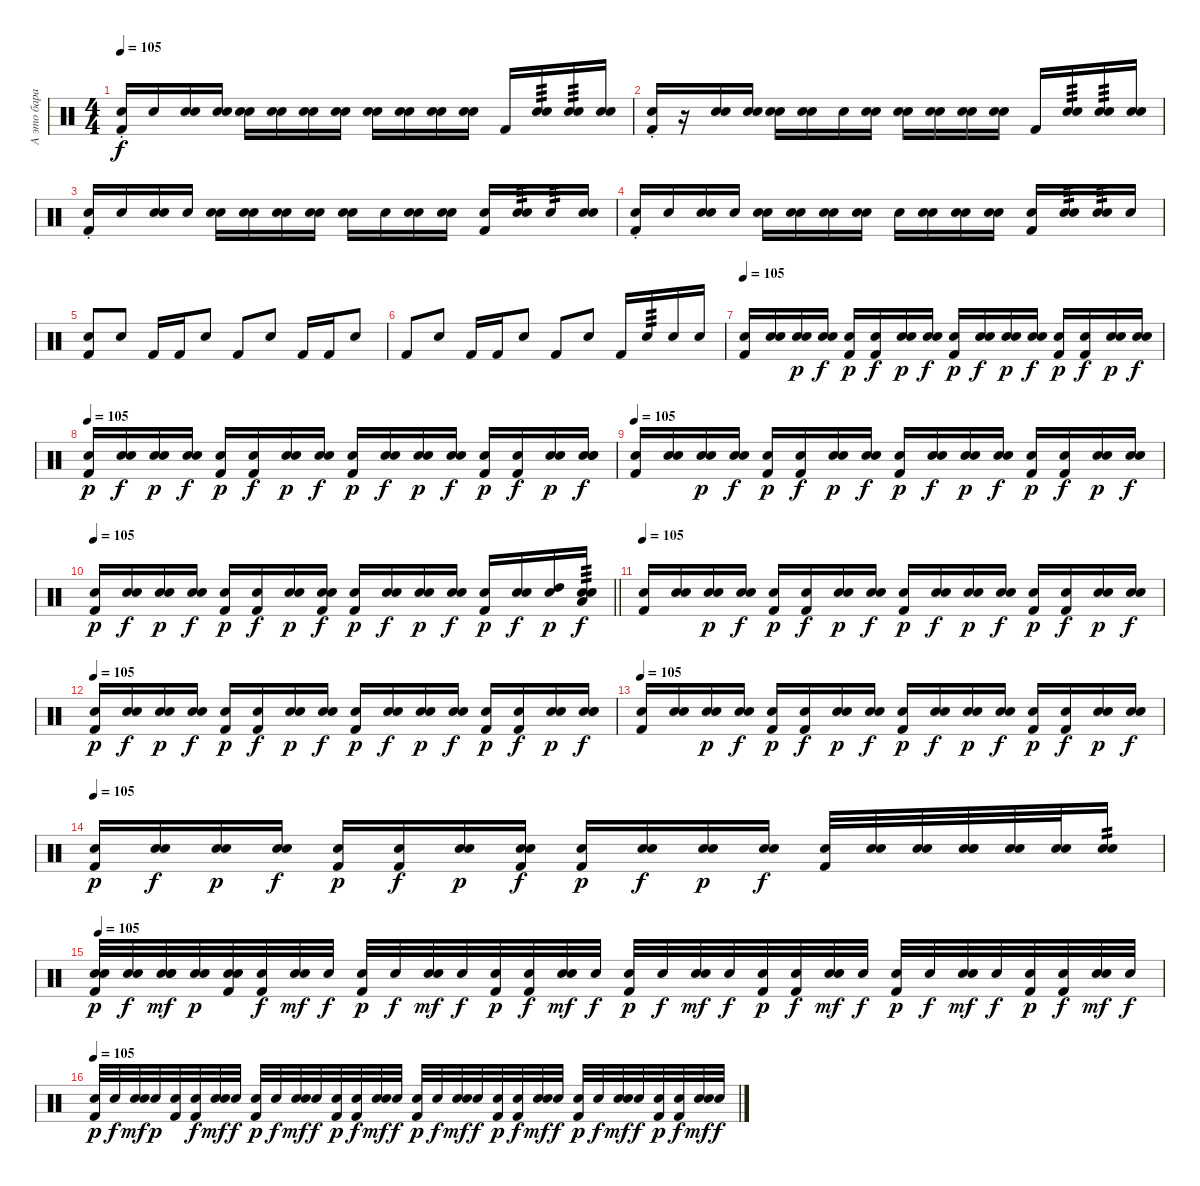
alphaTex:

\track ("А это барабаны" "А это бара") {instrument percussion}
\staff {score}
\articulation defaults
\ts (4 4)
\tempo 105
\clef neutral
\ks c
("Snare (hit)"{st} "Kick (hit) 2").16{dy f} "Snare (hit)".16 ("Snare (hit)" "Snare (hit) 2").16 ("Snare (hit)" "Snare (hit) 2").16 ("Snare (hit)" "Snare (hit) 2").16 ("Snare (hit)" "Snare (hit) 2").16 ("Snare (hit)" "Snare (hit) 2").16 ("Snare (hit)" "Snare (hit) 2").16 ("Snare (hit)" "Snare (hit) 2").16 ("Snare (hit)" "Snare (hit) 2").16 ("Snare (hit)" "Snare (hit) 2").16 ("Snare (hit)" "Snare (hit) 2").16 "Kick (hit) 2".16 ("Snare (hit)" "Snare (hit) 2").16{tp 3} ("Snare (hit)" "Snare (hit) 2").16{tp 3} ("Snare (hit)" "Snare (hit) 2").16 |
("Snare (hit)"{st} "Kick (hit) 2").16 r.16 ("Snare (hit)" "Snare (hit) 2").16 ("Snare (hit)" "Snare (hit) 2").16 ("Snare (hit)" "Snare (hit) 2").16 ("Snare (hit)" "Snare (hit) 2").16 "Snare (hit) 2".16 ("Snare (hit)" "Snare (hit) 2").16 ("Snare (hit)" "Snare (hit) 2").16 ("Snare (hit)" "Snare (hit) 2").16 ("Snare (hit)" "Snare (hit) 2").16 ("Snare (hit)" "Snare (hit) 2").16 "Kick (hit) 2".16 ("Snare (hit)" "Snare (hit) 2").16{tp 3} ("Snare (hit)" "Snare (hit) 2").16{tp 3} ("Snare (hit)" "Snare (hit) 2").16 |
("Snare (hit)"{st} "Kick (hit) 2").16 "Snare (hit)".16 ("Snare (hit)" "Snare (hit) 2").16 "Snare (hit) 2".16 ("Snare (hit)" "Snare (hit) 2").16 ("Snare (hit)" "Snare (hit) 2").16 ("Snare (hit)" "Snare (hit) 2").16 ("Snare (hit)" "Snare (hit) 2").16 ("Snare (hit)" "Snare (hit) 2").16 "Snare (hit) 2".16 ("Snare (hit)" "Snare (hit) 2").16 ("Snare (hit)" "Snare (hit) 2").16 ("Snare (hit)" "Kick (hit) 2").16 ("Snare (hit)" "Snare (hit) 2").16{tp 3} "Snare (hit) 2".16{tp 3} ("Snare (hit)" "Snare (hit) 2").16 |
("Snare (hit)"{st} "Kick (hit) 2").16 "Snare (hit)".16 ("Snare (hit)" "Snare (hit) 2").16 "Snare (hit) 2".16 ("Snare (hit)" "Snare (hit) 2").16 ("Snare (hit)" "Snare (hit) 2").16 ("Snare (hit)" "Snare (hit) 2").16 ("Snare (hit)" "Snare (hit) 2").16 "Snare (hit) 2".16 ("Snare (hit)" "Snare (hit) 2").16 ("Snare (hit)" "Snare (hit) 2").16 ("Snare (hit)" "Snare (hit) 2").16 ("Snare (hit)" "Kick (hit) 2").16 ("Snare (hit)" "Snare (hit) 2").16{tp 3} ("Snare (hit)" "Snare (hit) 2").16{tp 3} "Snare (hit) 2".16 |
("Snare (hit)" "Kick (hit) 2").8 "Snare (hit) 2".8 "Kick (hit) 2".16 "Kick (hit) 2".16 "Snare (hit) 2".8 "Kick (hit) 2".8 "Snare (hit) 2".8 "Kick (hit) 2".16 "Kick (hit) 2".16 "Snare (hit) 2".8 |
"Kick (hit) 2".8 "Snare (hit) 2".8 "Kick (hit) 2".16 "Kick (hit) 2".16 "Snare (hit) 2".8 "Kick (hit) 2".8 "Snare (hit) 2".8 "Kick (hit) 2".16 "Snare (hit) 2".16{tp 3} "Snare (hit) 2".16 "Snare (hit) 2".16 |
\tempo 105
("Snare (hit)" "Kick (hit) 2").16 ("Snare (hit)" "Snare (hit)").16 ("Snare (hit)" "Snare (hit) 2").16{dy p} ("Snare (hit)" "Snare (hit)").16{dy f} ("Snare (hit)" "Kick (hit) 2").16{dy p} ("Snare (hit)" "Kick (hit) 2").16{dy f} ("Snare (hit)" "Snare (hit) 2").16{dy p} ("Snare (hit)" "Snare (hit)").16{dy f} ("Snare (hit)" "Kick (hit) 2").16{dy p} ("Snare (hit)" "Snare (hit)").16{dy f} ("Snare (hit)" "Snare (hit) 2").16{dy p} ("Snare (hit)" "Snare (hit)").16{dy f} ("Snare (hit)" "Kick (hit) 2").16{dy p} ("Snare (hit)" "Kick (hit) 2").16{dy f} ("Snare (hit)" "Snare (hit) 2").16{dy p} ("Snare (hit)" "Snare (hit)").16{dy f} |
\tempo 105
("Snare (hit)" "Kick (hit) 2").16{dy p} ("Snare (hit)" "Snare (hit)").16{dy f} ("Snare (hit)" "Snare (hit) 2").16{dy p} ("Snare (hit)" "Snare (hit)").16{dy f} ("Snare (hit)" "Kick (hit) 2").16{dy p} ("Snare (hit)" "Kick (hit) 2").16{dy f} ("Snare (hit)" "Snare (hit) 2").16{dy p} ("Snare (hit)" "Snare (hit)").16{dy f} ("Snare (hit)" "Kick (hit) 2").16{dy p} ("Snare (hit)" "Snare (hit)").16{dy f} ("Snare (hit)" "Snare (hit) 2").16{dy p} ("Snare (hit)" "Snare (hit)").16{dy f} ("Snare (hit)" "Kick (hit) 2").16{dy p} ("Snare (hit)" "Kick (hit) 2").16{dy f} ("Snare (hit)" "Snare (hit) 2").16{dy p} ("Snare (hit)" "Snare (hit)" "Snare (hit) 2").16{dy f} |
\tempo 105
("Snare (hit)" "Kick (hit) 2").16 ("Snare (hit)" "Snare (hit)").16 ("Snare (hit)" "Snare (hit) 2").16{dy p} ("Snare (hit)" "Snare (hit)").16{dy f} ("Snare (hit)" "Kick (hit) 2").16{dy p} ("Snare (hit)" "Kick (hit) 2").16{dy f} ("Snare (hit)" "Snare (hit) 2").16{dy p} ("Snare (hit)" "Snare (hit)").16{dy f} ("Snare (hit)" "Kick (hit) 2").16{dy p} ("Snare (hit)" "Snare (hit)").16{dy f} ("Snare (hit)" "Snare (hit) 2").16{dy p} ("Snare (hit)" "Snare (hit)").16{dy f} ("Snare (hit)" "Kick (hit) 2").16{dy p} ("Snare (hit)" "Kick (hit) 2").16{dy f} ("Snare (hit)" "Snare (hit) 2").16{dy p} ("Snare (hit)" "Snare (hit)").16{dy f} |
\tempo 105
\barLineRight lightlight
("Snare (hit)" "Kick (hit) 2").16{dy p} ("Snare (hit)" "Snare (hit)").16{dy f} ("Snare (hit)" "Snare (hit) 2").16{dy p} ("Snare (hit)" "Snare (hit)").16{dy f} ("Snare (hit)" "Kick (hit) 2").16{dy p} ("Snare (hit)" "Kick (hit) 2").16{dy f} ("Snare (hit)" "Snare (hit) 2").16{dy p} ("Snare (hit)" "Snare (hit)" "Kick (hit) 2").16{dy f} ("Snare (hit)" "Kick (hit) 2").16{dy p} ("Snare (hit)" "Snare (hit)").16{dy f} ("Snare (hit)" "Snare (hit) 2").16{dy p} ("Snare (hit)" "Snare (hit)").16{dy f} ("Snare (hit)" "Kick (hit) 2").16{dy p} ("Snare (hit)" "Snare (hit) 2").16{dy f} ("Snare (hit)" "High Tom (hit)").16{dy p} ("Snare (hit)" "Snare (hit)" "Low Tom (hit)").16{tp 3 dy f} |
\tempo 105
("Snare (hit)" "Kick (hit) 2").16 ("Snare (hit)" "Snare (hit)").16 ("Snare (hit)" "Snare (hit) 2").16{dy p} ("Snare (hit)" "Snare (hit)").16{dy f} ("Snare (hit)" "Kick (hit) 2").16{dy p} ("Snare (hit)" "Kick (hit) 2").16{dy f} ("Snare (hit)" "Snare (hit) 2").16{dy p} ("Snare (hit)" "Snare (hit)").16{dy f} ("Snare (hit)" "Kick (hit) 2").16{dy p} ("Snare (hit)" "Snare (hit)").16{dy f} ("Snare (hit)" "Snare (hit) 2").16{dy p} ("Snare (hit)" "Snare (hit)").16{dy f} ("Snare (hit)" "Kick (hit) 2").16{dy p} ("Snare (hit)" "Kick (hit) 2").16{dy f} ("Snare (hit)" "Snare (hit) 2").16{dy p} ("Snare (hit)" "Snare (hit)").16{dy f} |
\tempo 105
("Snare (hit)" "Kick (hit) 2").16{dy p} ("Snare (hit)" "Snare (hit)").16{dy f} ("Snare (hit)" "Snare (hit) 2").16{dy p} ("Snare (hit)" "Snare (hit)").16{dy f} ("Snare (hit)" "Kick (hit) 2").16{dy p} ("Snare (hit)" "Kick (hit) 2").16{dy f} ("Snare (hit)" "Snare (hit) 2").16{dy p} ("Snare (hit)" "Snare (hit)").16{dy f} ("Snare (hit)" "Kick (hit) 2").16{dy p} ("Snare (hit)" "Snare (hit)").16{dy f} ("Snare (hit)" "Snare (hit) 2").16{dy p} ("Snare (hit)" "Snare (hit)").16{dy f} ("Snare (hit)" "Kick (hit) 2").16{dy p} ("Snare (hit)" "Kick (hit) 2").16{dy f} ("Snare (hit)" "Snare (hit) 2").16{dy p} ("Snare (hit)" "Snare (hit)" "Snare (hit) 2").16{dy f} |
\tempo 105
("Snare (hit)" "Kick (hit) 2").16 ("Snare (hit)" "Snare (hit)").16 ("Snare (hit)" "Snare (hit) 2").16{dy p} ("Snare (hit)" "Snare (hit)").16{dy f} ("Snare (hit)" "Kick (hit) 2").16{dy p} ("Snare (hit)" "Kick (hit) 2").16{dy f} ("Snare (hit)" "Snare (hit) 2").16{dy p} ("Snare (hit)" "Snare (hit)").16{dy f} ("Snare (hit)" "Kick (hit) 2").16{dy p} ("Snare (hit)" "Snare (hit)").16{dy f} ("Snare (hit)" "Snare (hit) 2").16{dy p} ("Snare (hit)" "Snare (hit)").16{dy f} ("Snare (hit)" "Kick (hit) 2").16{dy p} ("Snare (hit)" "Kick (hit) 2").16{dy f} ("Snare (hit)" "Snare (hit) 2").16{dy p} ("Snare (hit)" "Snare (hit)").16{dy f} |
\tempo 105
("Snare (hit)" "Kick (hit) 2").16{dy p} ("Snare (hit)" "Snare (hit)").16{dy f} ("Snare (hit)" "Snare (hit) 2").16{dy p} ("Snare (hit)" "Snare (hit)").16{dy f} ("Snare (hit)" "Kick (hit) 2").16{dy p} ("Snare (hit)" "Kick (hit) 2").16{dy f} ("Snare (hit)" "Snare (hit) 2").16{dy p} ("Snare (hit)" "Snare (hit)" "Kick (hit) 2").16{dy f} ("Snare (hit)" "Kick (hit) 2").16{dy p} ("Snare (hit)" "Snare (hit)").16{dy f} ("Snare (hit)" "Snare (hit) 2").16{dy p} ("Snare (hit)" "Snare (hit)").16{dy f} ("Snare (hit)" "Kick (hit) 2").32 ("Snare (hit)" "Snare (hit)").32 ("Snare (hit)" "Snare (hit) 2").32 ("Snare (hit)" "Snare (hit) 2" "Snare (hit)").32 ("Snare (hit)" "Snare (hit) 2").32 ("Snare (hit)" "Snare (hit)").32 ("Snare (hit)" "Snare (hit) 2").16{tp 2} |
\tempo 105
("Snare (hit)" "Snare (hit)" "Kick (hit) 2").32{dy p} ("Snare (hit)" "Snare (hit)").32{dy f} ("Snare (hit)" "Snare (hit)" "Snare (hit) 2").32{dy mf} ("Snare (hit)" "Snare (hit)").32{dy p} ("Snare (hit)" "Snare (hit)" "Kick (hit) 2").32 ("Snare (hit)" "Kick (hit) 2").32{dy f} ("Snare (hit)" "Snare (hit) 2").32{dy mf} "Snare (hit)".32{dy f} ("Snare (hit)" "Kick (hit) 2").32{dy p} "Snare (hit)".32{dy f} ("Snare (hit)" "Snare (hit) 2").32{dy mf} "Snare (hit)".32{dy f} ("Snare (hit)" "Kick (hit) 2").32{dy p} ("Snare (hit)" "Kick (hit) 2").32{dy f} ("Snare (hit)" "Snare (hit) 2").32{dy mf} "Snare (hit)".32{dy f} ("Snare (hit)" "Kick (hit) 2").32{dy p} "Snare (hit)".32{dy f} ("Snare (hit)" "Snare (hit) 2").32{dy mf} "Snare (hit)".32{dy f} ("Snare (hit)" "Kick (hit) 2").32{dy p} ("Snare (hit)" "Kick (hit) 2").32{dy f} ("Snare (hit)" "Snare (hit) 2").32{dy mf} "Snare (hit)".32{dy f} ("Snare (hit)" "Kick (hit) 2").32{dy p} "Snare (hit)".32{dy f} ("Snare (hit)" "Snare (hit) 2").32{dy mf} "Snare (hit)".32{dy f} ("Snare (hit)" "Kick (hit) 2").32{dy p} ("Snare (hit)" "Kick (hit) 2").32{dy f} ("Snare (hit)" "Snare (hit) 2").32{dy mf} "Snare (hit)".32{dy f} |
\tempo 105
("Snare (hit)" "Kick (hit) 2").32{dy p} "Snare (hit)".32{dy f} ("Snare (hit)" "Snare (hit) 2").32{dy mf} "Snare (hit)".32{dy p} ("Snare (hit)" "Kick (hit) 2").32 ("Snare (hit)" "Kick (hit) 2").32{dy f} ("Snare (hit)" "Snare (hit) 2").32{dy mf} "Snare (hit)".32{dy f} ("Snare (hit)" "Kick (hit) 2").32{dy p} "Snare (hit)".32{dy f} ("Snare (hit)" "Snare (hit) 2").32{dy mf} "Snare (hit)".32{dy f} ("Snare (hit)" "Kick (hit) 2").32{dy p} ("Snare (hit)" "Kick (hit) 2").32{dy f} ("Snare (hit)" "Snare (hit) 2").32{dy mf} "Snare (hit)".32{dy f} ("Snare (hit)" "Kick (hit) 2").32{dy p} "Snare (hit)".32{dy f} ("Snare (hit)" "Snare (hit) 2").32{dy mf} "Snare (hit)".32{dy f} ("Snare (hit)" "Kick (hit) 2").32{dy p} ("Snare (hit)" "Kick (hit) 2").32{dy f} ("Snare (hit)" "Snare (hit) 2").32{dy mf} "Snare (hit)".32{dy f} ("Snare (hit)" "Kick (hit) 2").32{dy p} "Snare (hit)".32{dy f} ("Snare (hit)" "Snare (hit) 2").32{dy mf} "Snare (hit)".32{dy f} ("Snare (hit)" "Kick (hit) 2").32{dy p} ("Snare (hit)" "Kick (hit) 2").32{dy f} ("Snare (hit)" "Snare (hit) 2").32{dy mf} "Snare (hit)".32{dy f}
